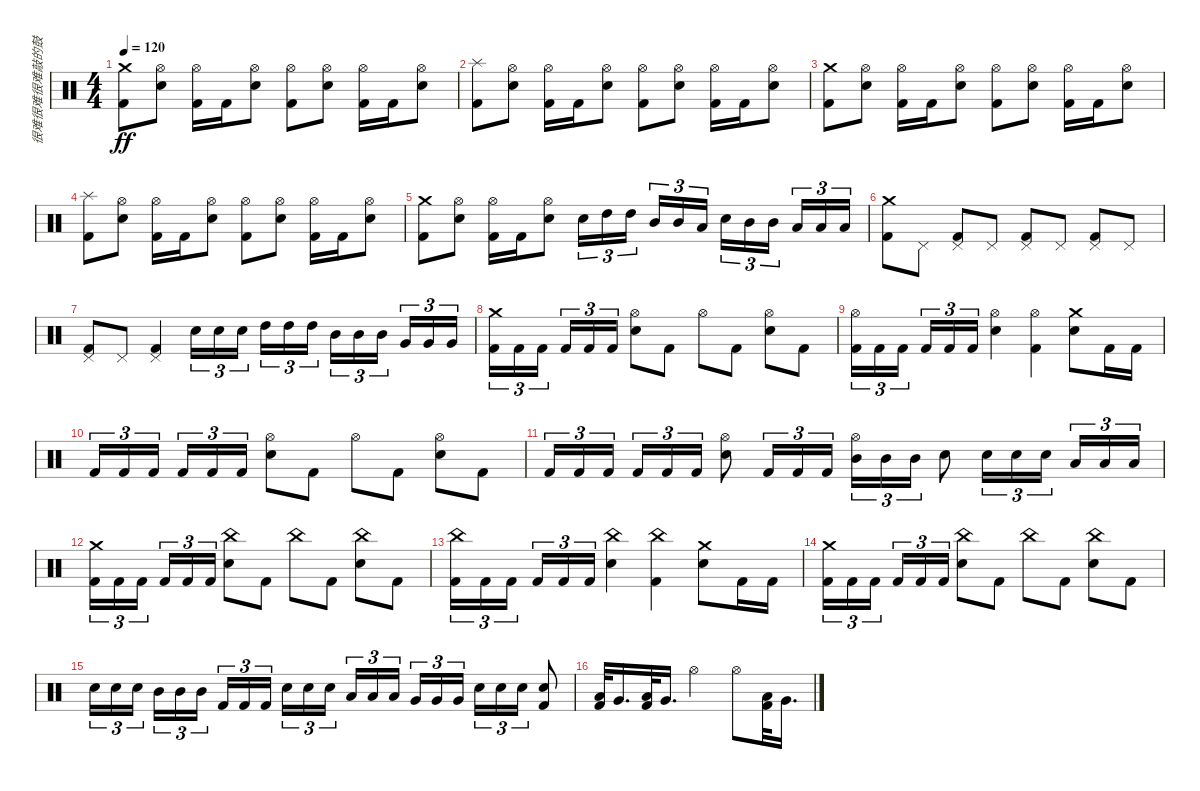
\track ("很难很难很难敲的鼓" "很难很难很难敲的鼓") {instrument percussion}
\staff {score}
\articulation defaults
\ts (4 4)
\tempo 120
\clef neutral
\ks c
("Kick (hit) 2" "Crash medium (hit)").8{dy ff} ("Electric Snare (hit)" "Hi-Hat (open)").8 ("Kick (hit) 2" "Hi-Hat (open)").16 "Kick (hit) 2".16 ("Electric Snare (hit)" "Hi-Hat (open)").8 ("Kick (hit) 2" "Hi-Hat (open)").8 ("Electric Snare (hit)" "Hi-Hat (open)").8 ("Kick (hit) 2" "Hi-Hat (open)").16 "Kick (hit) 2".16 ("Electric Snare (hit)" "Hi-Hat (open)").8 |
("Kick (hit) 2" "Splash (hit)").8 ("Electric Snare (hit)" "Hi-Hat (open)").8 ("Kick (hit) 2" "Hi-Hat (open)").16 "Kick (hit) 2".16 ("Electric Snare (hit)" "Hi-Hat (open)").8 ("Kick (hit) 2" "Hi-Hat (open)").8 ("Electric Snare (hit)" "Hi-Hat (open)").8 ("Kick (hit) 2" "Hi-Hat (open)").16 "Kick (hit) 2".16 ("Electric Snare (hit)" "Hi-Hat (open)").8 |
("Kick (hit) 2" "Crash medium (hit)").8 ("Electric Snare (hit)" "Hi-Hat (open)").8 ("Kick (hit) 2" "Hi-Hat (open)").16 "Kick (hit) 2".16 ("Electric Snare (hit)" "Hi-Hat (open)").8 ("Kick (hit) 2" "Hi-Hat (open)").8 ("Electric Snare (hit)" "Hi-Hat (open)").8 ("Kick (hit) 2" "Hi-Hat (open)").16 "Kick (hit) 2".16 ("Electric Snare (hit)" "Hi-Hat (open)").8 |
("Kick (hit) 2" "Splash (hit)").8 ("Electric Snare (hit)" "Hi-Hat (open)").8 ("Kick (hit) 2" "Hi-Hat (open)").16 "Kick (hit) 2".16 ("Electric Snare (hit)" "Hi-Hat (open)").8 ("Kick (hit) 2" "Hi-Hat (open)").8 ("Electric Snare (hit)" "Hi-Hat (open)").8 ("Kick (hit) 2" "Hi-Hat (open)").16 "Kick (hit) 2".16 ("Electric Snare (hit)" "Hi-Hat (open)").8 |
("Kick (hit) 2" "Crash medium (hit)").8 ("Electric Snare (hit)" "Hi-Hat (open)").8 ("Kick (hit) 2" "Hi-Hat (open)").16 "Kick (hit) 2".16 ("Electric Snare (hit)" "Hi-Hat (open)").8 "Electric Snare (hit)".16{tu (3 2)} "High Tom (hit)".16{tu (3 2)} "High Tom (hit)".16{tu (3 2) beam splitsecondary} "Mid Tom (hit)".16{tu (3 2)} "Mid Tom (hit)".16{tu (3 2)} "Low Floor Tom (hit)".16{tu (3 2)} "Electric Snare (hit)".16{tu (3 2)} "Mid Tom (hit)".16{tu (3 2)} "Mid Tom (hit)".16{tu (3 2) beam splitsecondary} "Low Floor Tom (hit)".16{tu (3 2)} "Low Floor Tom (hit)".16{tu (3 2)} "Low Floor Tom (hit)".16{tu (3 2)} |
("Kick (hit) 2" "Crash medium (hit)").8 "Pedal Hi-Hat (hit)".8 ("Pedal Hi-Hat (hit)" "Kick (hit) 2").8 "Pedal Hi-Hat (hit)".8 ("Pedal Hi-Hat (hit)" "Kick (hit) 2").8 "Pedal Hi-Hat (hit)".8 ("Pedal Hi-Hat (hit)" "Kick (hit) 2").8 "Pedal Hi-Hat (hit)".8 |
("Pedal Hi-Hat (hit)" "Kick (hit) 2").8 "Pedal Hi-Hat (hit)".8 ("Pedal Hi-Hat (hit)" "Kick (hit) 2").4 "Electric Snare (hit)".16{tu (3 2)} "Electric Snare (hit)".16{tu (3 2)} "Electric Snare (hit)".16{tu (3 2) beam splitsecondary} "High Tom (hit)".16{tu (3 2)} "High Tom (hit)".16{tu (3 2)} "High Tom (hit)".16{tu (3 2)} "Mid Tom (hit)".16{tu (3 2)} "Mid Tom (hit)".16{tu (3 2)} "Mid Tom (hit)".16{tu (3 2) beam splitsecondary} "Very Low Tom (hit)".16{tu (3 2)} "Very Low Tom (hit)".16{tu (3 2)} "Very Low Tom (hit)".16{tu (3 2)} |
("Kick (hit) 2" "Crash medium (hit)").16{tu (3 2)} "Kick (hit) 2".16{tu (3 2)} "Kick (hit) 2".16{tu (3 2) beam splitsecondary} "Kick (hit) 2".16{tu (3 2)} "Kick (hit) 2".16{tu (3 2)} "Kick (hit) 2".16{tu (3 2)} ("Electric Snare (hit)" "Hi-Hat (open)").8 "Kick (hit) 2".8 "Hi-Hat (open)".8 "Kick (hit) 2".8 ("Electric Snare (hit)" "Hi-Hat (open)").8 "Kick (hit) 2".8 |
("Kick (hit) 2" "Hi-Hat (open)").16{tu (3 2)} "Kick (hit) 2".16{tu (3 2)} "Kick (hit) 2".16{tu (3 2) beam splitsecondary} "Kick (hit) 2".16{tu (3 2)} "Kick (hit) 2".16{tu (3 2)} "Kick (hit) 2".16{tu (3 2)} ("Electric Snare (hit)" "Hi-Hat (open)").4 ("Kick (hit) 2" "Hi-Hat (open)").4 ("Electric Snare (hit)" "Crash medium (hit)").8 "Kick (hit) 2".16 "Kick (hit) 2".16 |
"Kick (hit) 2".16{tu (3 2)} "Kick (hit) 2".16{tu (3 2)} "Kick (hit) 2".16{tu (3 2) beam splitsecondary} "Kick (hit) 2".16{tu (3 2)} "Kick (hit) 2".16{tu (3 2)} "Kick (hit) 2".16{tu (3 2)} ("Electric Snare (hit)" "Hi-Hat (open)").8 "Kick (hit) 2".8 "Hi-Hat (open)".8 "Kick (hit) 2".8 ("Electric Snare (hit)" "Hi-Hat (open)").8 "Kick (hit) 2".8 |
"Kick (hit) 2".16{tu (3 2)} "Kick (hit) 2".16{tu (3 2)} "Kick (hit) 2".16{tu (3 2) beam splitsecondary} "Kick (hit) 2".16{tu (3 2)} "Kick (hit) 2".16{tu (3 2)} "Kick (hit) 2".16{tu (3 2)} ("Electric Snare (hit)" "Hi-Hat (open)").8 "Kick (hit) 2".16{tu (3 2)} "Kick (hit) 2".16{tu (3 2)} "Kick (hit) 2".16{tu (3 2)} ("Mid Tom (hit)" "Hi-Hat (open)").16{tu (3 2)} "Mid Tom (hit)".16{tu (3 2)} "Mid Tom (hit)".16{tu (3 2)} "Electric Snare (hit)".8 "Electric Snare (hit)".16{tu (3 2)} "Electric Snare (hit)".16{tu (3 2)} "Electric Snare (hit)".16{tu (3 2) beam splitsecondary} "Low Tom (hit)".16{tu (3 2)} "Low Tom (hit)".16{tu (3 2)} "Low Tom (hit)".16{tu (3 2)} |
("Kick (hit) 2" "Crash medium (hit)").16{tu (3 2)} "Kick (hit) 2".16{tu (3 2)} "Kick (hit) 2".16{tu (3 2) beam splitsecondary} "Kick (hit) 2".16{tu (3 2)} "Kick (hit) 2".16{tu (3 2)} "Kick (hit) 2".16{tu (3 2)} ("Electric Snare (hit)" "China (hit)").8 "Kick (hit) 2".8 "China (hit)".8 "Kick (hit) 2".8 ("Electric Snare (hit)" "China (hit)").8 "Kick (hit) 2".8 |
("Kick (hit) 2" "China (hit)").16{tu (3 2)} "Kick (hit) 2".16{tu (3 2)} "Kick (hit) 2".16{tu (3 2) beam splitsecondary} "Kick (hit) 2".16{tu (3 2)} "Kick (hit) 2".16{tu (3 2)} "Kick (hit) 2".16{tu (3 2)} ("Electric Snare (hit)" "China (hit)").4 ("Kick (hit) 2" "China (hit)").4 ("Electric Snare (hit)" "Crash medium (hit)").8 "Kick (hit) 2".16 "Kick (hit) 2".16 |
("Kick (hit) 2" "Crash medium (hit)").16{tu (3 2)} "Kick (hit) 2".16{tu (3 2)} "Kick (hit) 2".16{tu (3 2) beam splitsecondary} "Kick (hit) 2".16{tu (3 2)} "Kick (hit) 2".16{tu (3 2)} "Kick (hit) 2".16{tu (3 2)} ("Electric Snare (hit)" "China (hit)").8 "Kick (hit) 2".8 "China (hit)".8 "Kick (hit) 2".8 ("Electric Snare (hit)" "China (hit)").8 "Kick (hit) 2".8 |
"Electric Snare (hit)".16{tu (3 2)} "Electric Snare (hit)".16{tu (3 2)} "Electric Snare (hit)".16{tu (3 2) beam splitsecondary} "Mid Tom (hit)".16{tu (3 2)} "Mid Tom (hit)".16{tu (3 2)} "Mid Tom (hit)".16{tu (3 2)} "Kick (hit) 2".16{tu (3 2)} "Kick (hit) 2".16{tu (3 2)} "Kick (hit) 2".16{tu (3 2) beam splitsecondary} "Electric Snare (hit)".16{tu (3 2)} "Electric Snare (hit)".16{tu (3 2)} "Electric Snare (hit)".16{tu (3 2)} "Low Tom (hit)".16{tu (3 2)} "Low Tom (hit)".16{tu (3 2)} "Low Tom (hit)".16{tu (3 2) beam splitsecondary} "Very Low Tom (hit)".16{tu (3 2)} "Very Low Tom (hit)".16{tu (3 2)} "Very Low Tom (hit)".16{tu (3 2)} "Electric Snare (hit)".16{tu (3 2)} "Electric Snare (hit)".16{tu (3 2)} "Electric Snare (hit)".16{tu (3 2)} ("Kick (hit) 2" "Electric Snare (hit)").8 |
("Kick (hit) 2" "Low Floor Tom (hit)").32 "Very Low Tom (hit)".16{d} ("Kick (hit) 2" "Low Floor Tom (hit)").32 "Very Low Tom (hit)".16{d} "Hi-Hat (open)".2 "Hi-Hat (open)".8 ("Kick (hit) 2" "Low Floor Tom (hit)").32 "Very Low Tom (hit)".16{d}
